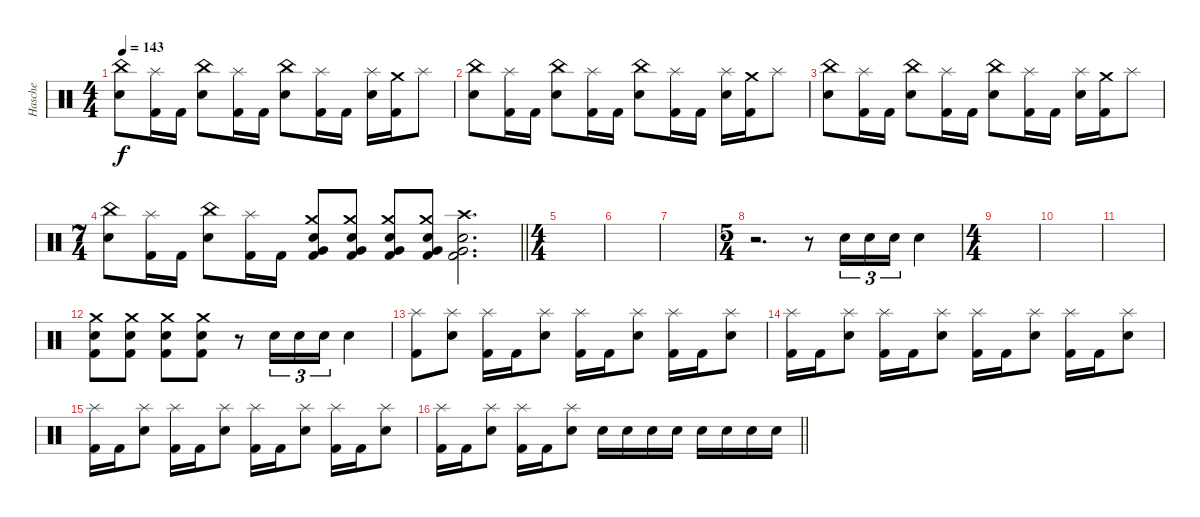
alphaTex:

\track ("Hasche" "Hasche") {instrument percussion}
\staff {score}
\articulation defaults
\ts (4 4)
\tempo 143
\clef neutral
\ks c
("China (hit)" "Snare (hit) 2").8{dy f} ("Splash (hit)" "Kick (hit) 2").16 "Kick (hit) 2".16 ("China (hit)" "Snare (hit) 2").8 ("Splash (hit)" "Kick (hit) 2").16 "Kick (hit) 2".16 ("China (hit)" "Snare (hit) 2").8 ("Splash (hit)" "Kick (hit) 2").16 "Kick (hit) 2".16 ("Splash (hit)" "Snare (hit) 2").16 ("Crash medium (hit)" "Kick (hit) 2").16 "Splash (hit)".8 |
("China (hit)" "Snare (hit) 2").8 ("Splash (hit)" "Kick (hit) 2").16 "Kick (hit) 2".16 ("China (hit)" "Snare (hit) 2").8 ("Splash (hit)" "Kick (hit) 2").16 "Kick (hit) 2".16 ("China (hit)" "Snare (hit) 2").8 ("Splash (hit)" "Kick (hit) 2").16 "Kick (hit) 2".16 ("Splash (hit)" "Snare (hit) 2").16 ("Crash medium (hit)" "Kick (hit) 2").16 "Splash (hit)".8 |
("China (hit)" "Snare (hit) 2").8 ("Splash (hit)" "Kick (hit) 2").16 "Kick (hit) 2".16 ("China (hit)" "Snare (hit) 2").8 ("Splash (hit)" "Kick (hit) 2").16 "Kick (hit) 2".16 ("China (hit)" "Snare (hit) 2").8 ("Splash (hit)" "Kick (hit) 2").16 "Kick (hit) 2".16 ("Splash (hit)" "Snare (hit) 2").16 ("Crash medium (hit)" "Kick (hit) 2").16 "Splash (hit)".8 |
\ts (7 4)
\barLineRight lightlight
("China (hit)" "Snare (hit) 2").8 ("Splash (hit)" "Kick (hit) 2").16 "Kick (hit) 2".16 ("China (hit)" "Snare (hit) 2").8 ("Splash (hit)" "Kick (hit) 2").16 "Kick (hit) 2".16 ("Crash medium (hit)" "Very Low Tom (hit)" "Snare (hit) 2" "Kick (hit) 2").8 ("Crash medium (hit)" "Very Low Tom (hit)" "Snare (hit) 2" "Kick (hit) 2").8 ("Crash medium (hit)" "Very Low Tom (hit)" "Snare (hit) 2" "Kick (hit) 2").8 ("Crash medium (hit)" "Very Low Tom (hit)" "Snare (hit) 2" "Kick (hit) 2").8 ("Crash high (hit)" "Very Low Tom (hit)" "Snare (hit) 2" "Kick (hit) 2").2{d} |
\ts (4 4)
|
|
|
\ts (5 4)
r.2{d} r.8 "Snare (hit) 2".16{tu (3 2)} "Snare (hit) 2".16{tu (3 2)} "Snare (hit) 2".16{tu (3 2)} "Snare (hit) 2".4 |
\ts (4 4)
|
|
|
("Crash medium (hit)" "Snare (hit) 2" "Kick (hit) 2").8 ("Crash medium (hit)" "Snare (hit) 2" "Kick (hit) 2").8 ("Crash medium (hit)" "Snare (hit) 2" "Kick (hit) 2").8 ("Crash medium (hit)" "Snare (hit) 2" "Kick (hit) 2").8 r.8 "Snare (hit) 2".16{tu (3 2)} "Snare (hit) 2".16{tu (3 2)} "Snare (hit) 2".16{tu (3 2)} "Snare (hit) 2".4 |
("Splash (hit)" "Kick (hit) 2").8 ("Splash (hit)" "Snare (hit) 2").8 ("Splash (hit)" "Kick (hit) 2").16 "Kick (hit) 2".16 ("Splash (hit)" "Snare (hit) 2").8 ("Splash (hit)" "Kick (hit) 2").16 "Kick (hit) 2".16 ("Splash (hit)" "Snare (hit) 2").8 ("Splash (hit)" "Kick (hit) 2").16 "Kick (hit) 2".16 ("Splash (hit)" "Snare (hit) 2").8 |
("Splash (hit)" "Kick (hit) 2").16 "Kick (hit) 2".16 ("Splash (hit)" "Snare (hit) 2").8 ("Splash (hit)" "Kick (hit) 2").16 "Kick (hit) 2".16 ("Splash (hit)" "Snare (hit) 2").8 ("Splash (hit)" "Kick (hit) 2").16 "Kick (hit) 2".16 ("Splash (hit)" "Snare (hit) 2").8 ("Splash (hit)" "Kick (hit) 2").16 "Kick (hit) 2".16 ("Splash (hit)" "Snare (hit) 2").8 |
("Splash (hit)" "Kick (hit) 2").16 "Kick (hit) 2".16 ("Splash (hit)" "Snare (hit) 2").8 ("Splash (hit)" "Kick (hit) 2").16 "Kick (hit) 2".16 ("Splash (hit)" "Snare (hit) 2").8 ("Splash (hit)" "Kick (hit) 2").16 "Kick (hit) 2".16 ("Splash (hit)" "Snare (hit) 2").8 ("Splash (hit)" "Kick (hit) 2").16 "Kick (hit) 2".16 ("Splash (hit)" "Snare (hit) 2").8 |
\barLineRight lightlight
("Splash (hit)" "Kick (hit) 2").16 "Kick (hit) 2".16 ("Splash (hit)" "Snare (hit) 2").8 ("Splash (hit)" "Kick (hit) 2").16 "Kick (hit) 2".16 ("Splash (hit)" "Snare (hit) 2").8 "Snare (hit) 2".16 "Snare (hit) 2".16 "Snare (hit) 2".16 "Snare (hit) 2".16 "Snare (hit) 2".16 "Snare (hit) 2".16 "Snare (hit) 2".16 "Snare (hit) 2".16
